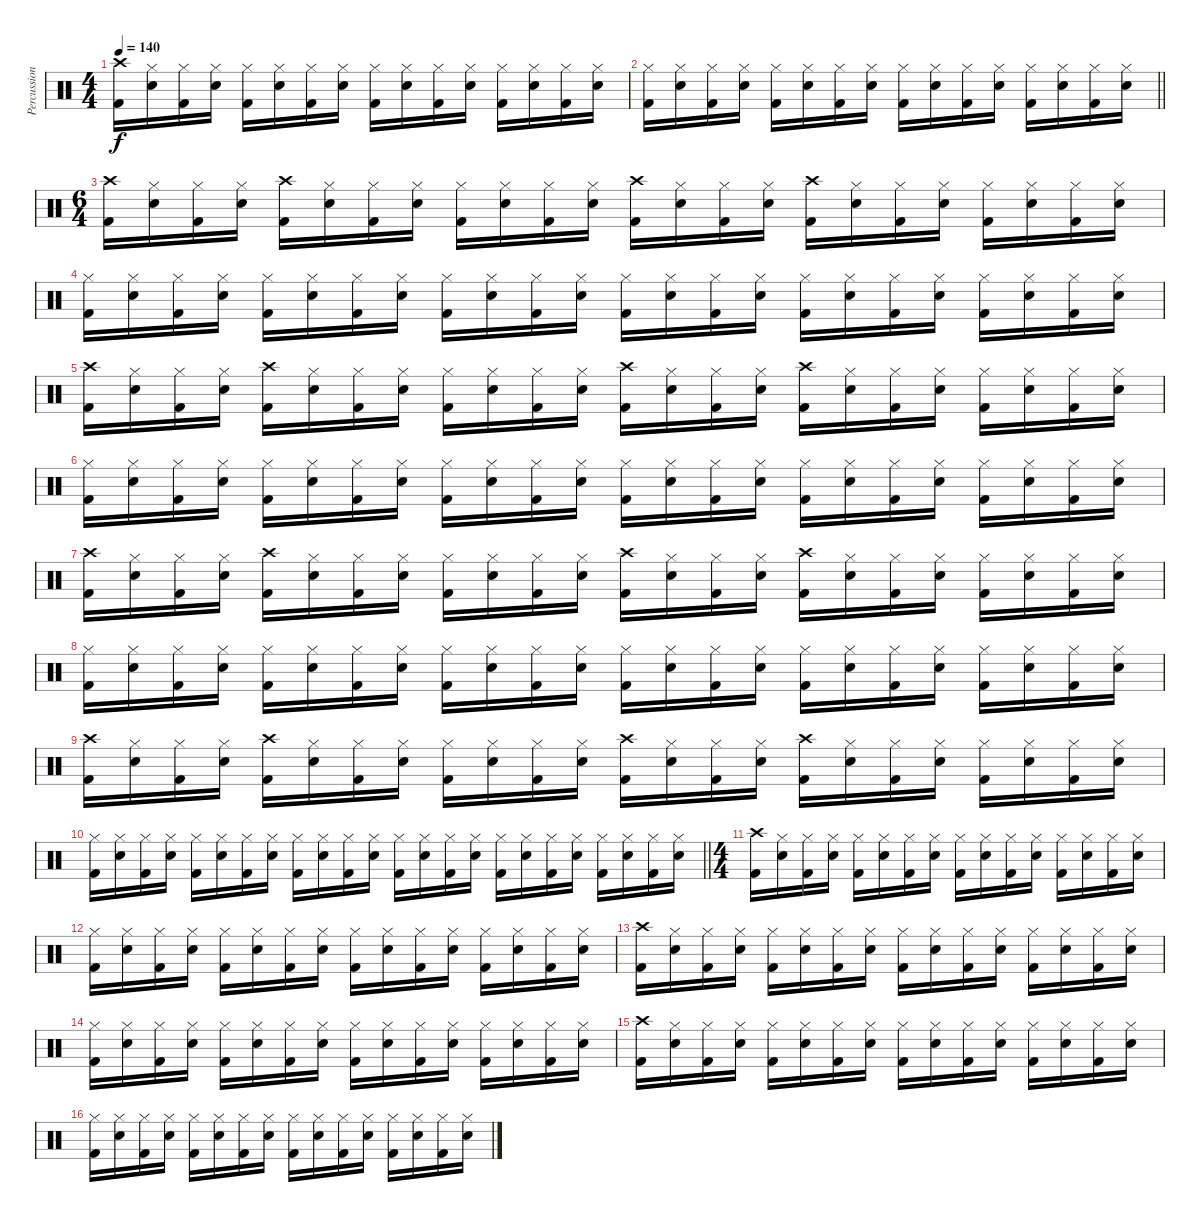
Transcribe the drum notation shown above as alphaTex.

\track ("Percussions" "Percussion") {instrument percussion}
\staff {score}
\articulation defaults
\ts (4 4)
\tempo 140
\clef neutral
\ks c
("Crash high (hit)" "Kick (hit) 2").16{dy f} ("Hi-Hat (closed)" "Electric Snare (hit)").16 ("Hi-Hat (closed)" "Kick (hit) 2").16 ("Hi-Hat (closed)" "Electric Snare (hit)").16 ("Hi-Hat (closed)" "Kick (hit) 2").16 ("Hi-Hat (closed)" "Electric Snare (hit)").16 ("Hi-Hat (closed)" "Kick (hit) 2").16 ("Hi-Hat (closed)" "Electric Snare (hit)").16 ("Hi-Hat (closed)" "Kick (hit) 2").16 ("Hi-Hat (closed)" "Electric Snare (hit)").16 ("Hi-Hat (closed)" "Kick (hit) 2").16 ("Hi-Hat (closed)" "Electric Snare (hit)").16 ("Hi-Hat (closed)" "Kick (hit) 2").16 ("Hi-Hat (closed)" "Electric Snare (hit)").16 ("Hi-Hat (closed)" "Kick (hit) 2").16 ("Hi-Hat (closed)" "Electric Snare (hit)").16 |
\barLineRight lightlight
("Hi-Hat (closed)" "Kick (hit) 2").16 ("Hi-Hat (closed)" "Electric Snare (hit)").16 ("Hi-Hat (closed)" "Kick (hit) 2").16 ("Hi-Hat (closed)" "Electric Snare (hit)").16 ("Hi-Hat (closed)" "Kick (hit) 2").16 ("Hi-Hat (closed)" "Electric Snare (hit)").16 ("Hi-Hat (closed)" "Kick (hit) 2").16 ("Hi-Hat (closed)" "Electric Snare (hit)").16 ("Hi-Hat (closed)" "Kick (hit) 2").16 ("Hi-Hat (closed)" "Electric Snare (hit)").16 ("Hi-Hat (closed)" "Kick (hit) 2").16 ("Hi-Hat (closed)" "Electric Snare (hit)").16 ("Hi-Hat (closed)" "Kick (hit) 2").16 ("Hi-Hat (closed)" "Electric Snare (hit)").16 ("Hi-Hat (closed)" "Kick (hit) 2").16 ("Hi-Hat (closed)" "Electric Snare (hit)").16 |
\ts (6 4)
("Crash high (hit)" "Kick (hit) 2").16 ("Hi-Hat (closed)" "Electric Snare (hit)").16 ("Hi-Hat (closed)" "Kick (hit) 2").16 ("Hi-Hat (closed)" "Electric Snare (hit)").16 ("Crash high (hit)" "Kick (hit) 2").16 ("Hi-Hat (closed)" "Electric Snare (hit)").16 ("Hi-Hat (closed)" "Kick (hit) 2").16 ("Hi-Hat (closed)" "Electric Snare (hit)").16 ("Hi-Hat (closed)" "Kick (hit) 2").16 ("Hi-Hat (closed)" "Electric Snare (hit)").16 ("Hi-Hat (closed)" "Kick (hit) 2").16 ("Hi-Hat (closed)" "Electric Snare (hit)").16 ("Crash high (hit)" "Kick (hit) 2").16 ("Hi-Hat (closed)" "Electric Snare (hit)").16 ("Hi-Hat (closed)" "Kick (hit) 2").16 ("Hi-Hat (closed)" "Electric Snare (hit)").16 ("Crash high (hit)" "Kick (hit) 2").16 ("Hi-Hat (closed)" "Electric Snare (hit)").16 ("Hi-Hat (closed)" "Kick (hit) 2").16 ("Hi-Hat (closed)" "Electric Snare (hit)").16 ("Hi-Hat (closed)" "Kick (hit) 2").16 ("Hi-Hat (closed)" "Electric Snare (hit)").16 ("Hi-Hat (closed)" "Kick (hit) 2").16 ("Hi-Hat (closed)" "Electric Snare (hit)").16 |
("Hi-Hat (closed)" "Kick (hit) 2").16 ("Hi-Hat (closed)" "Electric Snare (hit)").16 ("Hi-Hat (closed)" "Kick (hit) 2").16 ("Hi-Hat (closed)" "Electric Snare (hit)").16 ("Hi-Hat (closed)" "Kick (hit) 2").16 ("Hi-Hat (closed)" "Electric Snare (hit)").16 ("Hi-Hat (closed)" "Kick (hit) 2").16 ("Hi-Hat (closed)" "Electric Snare (hit)").16 ("Hi-Hat (closed)" "Kick (hit) 2").16 ("Hi-Hat (closed)" "Electric Snare (hit)").16 ("Hi-Hat (closed)" "Kick (hit) 2").16 ("Hi-Hat (closed)" "Electric Snare (hit)").16 ("Hi-Hat (closed)" "Kick (hit) 2").16 ("Hi-Hat (closed)" "Electric Snare (hit)").16 ("Hi-Hat (closed)" "Kick (hit) 2").16 ("Hi-Hat (closed)" "Electric Snare (hit)").16 ("Hi-Hat (closed)" "Kick (hit) 2").16 ("Hi-Hat (closed)" "Electric Snare (hit)").16 ("Hi-Hat (closed)" "Kick (hit) 2").16 ("Hi-Hat (closed)" "Electric Snare (hit)").16 ("Hi-Hat (closed)" "Kick (hit) 2").16 ("Hi-Hat (closed)" "Electric Snare (hit)").16 ("Hi-Hat (closed)" "Kick (hit) 2").16 ("Hi-Hat (closed)" "Electric Snare (hit)").16 |
("Crash high (hit)" "Kick (hit) 2").16 ("Hi-Hat (closed)" "Electric Snare (hit)").16 ("Hi-Hat (closed)" "Kick (hit) 2").16 ("Hi-Hat (closed)" "Electric Snare (hit)").16 ("Crash high (hit)" "Kick (hit) 2").16 ("Hi-Hat (closed)" "Electric Snare (hit)").16 ("Hi-Hat (closed)" "Kick (hit) 2").16 ("Hi-Hat (closed)" "Electric Snare (hit)").16 ("Hi-Hat (closed)" "Kick (hit) 2").16 ("Hi-Hat (closed)" "Electric Snare (hit)").16 ("Hi-Hat (closed)" "Kick (hit) 2").16 ("Hi-Hat (closed)" "Electric Snare (hit)").16 ("Crash high (hit)" "Kick (hit) 2").16 ("Hi-Hat (closed)" "Electric Snare (hit)").16 ("Hi-Hat (closed)" "Kick (hit) 2").16 ("Hi-Hat (closed)" "Electric Snare (hit)").16 ("Crash high (hit)" "Kick (hit) 2").16 ("Hi-Hat (closed)" "Electric Snare (hit)").16 ("Hi-Hat (closed)" "Kick (hit) 2").16 ("Hi-Hat (closed)" "Electric Snare (hit)").16 ("Hi-Hat (closed)" "Kick (hit) 2").16 ("Hi-Hat (closed)" "Electric Snare (hit)").16 ("Hi-Hat (closed)" "Kick (hit) 2").16 ("Hi-Hat (closed)" "Electric Snare (hit)").16 |
("Hi-Hat (closed)" "Kick (hit) 2").16 ("Hi-Hat (closed)" "Electric Snare (hit)").16 ("Hi-Hat (closed)" "Kick (hit) 2").16 ("Hi-Hat (closed)" "Electric Snare (hit)").16 ("Hi-Hat (closed)" "Kick (hit) 2").16 ("Hi-Hat (closed)" "Electric Snare (hit)").16 ("Hi-Hat (closed)" "Kick (hit) 2").16 ("Hi-Hat (closed)" "Electric Snare (hit)").16 ("Hi-Hat (closed)" "Kick (hit) 2").16 ("Hi-Hat (closed)" "Electric Snare (hit)").16 ("Hi-Hat (closed)" "Kick (hit) 2").16 ("Hi-Hat (closed)" "Electric Snare (hit)").16 ("Hi-Hat (closed)" "Kick (hit) 2").16 ("Hi-Hat (closed)" "Electric Snare (hit)").16 ("Hi-Hat (closed)" "Kick (hit) 2").16 ("Hi-Hat (closed)" "Electric Snare (hit)").16 ("Hi-Hat (closed)" "Kick (hit) 2").16 ("Hi-Hat (closed)" "Electric Snare (hit)").16 ("Hi-Hat (closed)" "Kick (hit) 2").16 ("Hi-Hat (closed)" "Electric Snare (hit)").16 ("Hi-Hat (closed)" "Kick (hit) 2").16 ("Hi-Hat (closed)" "Electric Snare (hit)").16 ("Hi-Hat (closed)" "Kick (hit) 2").16 ("Hi-Hat (closed)" "Electric Snare (hit)").16 |
("Crash high (hit)" "Kick (hit) 2").16 ("Hi-Hat (closed)" "Electric Snare (hit)").16 ("Hi-Hat (closed)" "Kick (hit) 2").16 ("Hi-Hat (closed)" "Electric Snare (hit)").16 ("Crash high (hit)" "Kick (hit) 2").16 ("Hi-Hat (closed)" "Electric Snare (hit)").16 ("Hi-Hat (closed)" "Kick (hit) 2").16 ("Hi-Hat (closed)" "Electric Snare (hit)").16 ("Hi-Hat (closed)" "Kick (hit) 2").16 ("Hi-Hat (closed)" "Electric Snare (hit)").16 ("Hi-Hat (closed)" "Kick (hit) 2").16 ("Hi-Hat (closed)" "Electric Snare (hit)").16 ("Crash high (hit)" "Kick (hit) 2").16 ("Hi-Hat (closed)" "Electric Snare (hit)").16 ("Hi-Hat (closed)" "Kick (hit) 2").16 ("Hi-Hat (closed)" "Electric Snare (hit)").16 ("Crash high (hit)" "Kick (hit) 2").16 ("Hi-Hat (closed)" "Electric Snare (hit)").16 ("Hi-Hat (closed)" "Kick (hit) 2").16 ("Hi-Hat (closed)" "Electric Snare (hit)").16 ("Hi-Hat (closed)" "Kick (hit) 2").16 ("Hi-Hat (closed)" "Electric Snare (hit)").16 ("Hi-Hat (closed)" "Kick (hit) 2").16 ("Hi-Hat (closed)" "Electric Snare (hit)").16 |
("Hi-Hat (closed)" "Kick (hit) 2").16 ("Hi-Hat (closed)" "Electric Snare (hit)").16 ("Hi-Hat (closed)" "Kick (hit) 2").16 ("Hi-Hat (closed)" "Electric Snare (hit)").16 ("Hi-Hat (closed)" "Kick (hit) 2").16 ("Hi-Hat (closed)" "Electric Snare (hit)").16 ("Hi-Hat (closed)" "Kick (hit) 2").16 ("Hi-Hat (closed)" "Electric Snare (hit)").16 ("Hi-Hat (closed)" "Kick (hit) 2").16 ("Hi-Hat (closed)" "Electric Snare (hit)").16 ("Hi-Hat (closed)" "Kick (hit) 2").16 ("Hi-Hat (closed)" "Electric Snare (hit)").16 ("Hi-Hat (closed)" "Kick (hit) 2").16 ("Hi-Hat (closed)" "Electric Snare (hit)").16 ("Hi-Hat (closed)" "Kick (hit) 2").16 ("Hi-Hat (closed)" "Electric Snare (hit)").16 ("Hi-Hat (closed)" "Kick (hit) 2").16 ("Hi-Hat (closed)" "Electric Snare (hit)").16 ("Hi-Hat (closed)" "Kick (hit) 2").16 ("Hi-Hat (closed)" "Electric Snare (hit)").16 ("Hi-Hat (closed)" "Kick (hit) 2").16 ("Hi-Hat (closed)" "Electric Snare (hit)").16 ("Hi-Hat (closed)" "Kick (hit) 2").16 ("Hi-Hat (closed)" "Electric Snare (hit)").16 |
("Crash high (hit)" "Kick (hit) 2").16 ("Hi-Hat (closed)" "Electric Snare (hit)").16 ("Hi-Hat (closed)" "Kick (hit) 2").16 ("Hi-Hat (closed)" "Electric Snare (hit)").16 ("Crash high (hit)" "Kick (hit) 2").16 ("Hi-Hat (closed)" "Electric Snare (hit)").16 ("Hi-Hat (closed)" "Kick (hit) 2").16 ("Hi-Hat (closed)" "Electric Snare (hit)").16 ("Hi-Hat (closed)" "Kick (hit) 2").16 ("Hi-Hat (closed)" "Electric Snare (hit)").16 ("Hi-Hat (closed)" "Kick (hit) 2").16 ("Hi-Hat (closed)" "Electric Snare (hit)").16 ("Crash high (hit)" "Kick (hit) 2").16 ("Hi-Hat (closed)" "Electric Snare (hit)").16 ("Hi-Hat (closed)" "Kick (hit) 2").16 ("Hi-Hat (closed)" "Electric Snare (hit)").16 ("Crash high (hit)" "Kick (hit) 2").16 ("Hi-Hat (closed)" "Electric Snare (hit)").16 ("Hi-Hat (closed)" "Kick (hit) 2").16 ("Hi-Hat (closed)" "Electric Snare (hit)").16 ("Hi-Hat (closed)" "Kick (hit) 2").16 ("Hi-Hat (closed)" "Electric Snare (hit)").16 ("Hi-Hat (closed)" "Kick (hit) 2").16 ("Hi-Hat (closed)" "Electric Snare (hit)").16 |
\barLineRight lightlight
("Hi-Hat (closed)" "Kick (hit) 2").16 ("Hi-Hat (closed)" "Electric Snare (hit)").16 ("Hi-Hat (closed)" "Kick (hit) 2").16 ("Hi-Hat (closed)" "Electric Snare (hit)").16 ("Hi-Hat (closed)" "Kick (hit) 2").16 ("Hi-Hat (closed)" "Electric Snare (hit)").16 ("Hi-Hat (closed)" "Kick (hit) 2").16 ("Hi-Hat (closed)" "Electric Snare (hit)").16 ("Hi-Hat (closed)" "Kick (hit) 2").16 ("Hi-Hat (closed)" "Electric Snare (hit)").16 ("Hi-Hat (closed)" "Kick (hit) 2").16 ("Hi-Hat (closed)" "Electric Snare (hit)").16 ("Hi-Hat (closed)" "Kick (hit) 2").16 ("Hi-Hat (closed)" "Electric Snare (hit)").16 ("Hi-Hat (closed)" "Kick (hit) 2").16 ("Hi-Hat (closed)" "Electric Snare (hit)").16 ("Hi-Hat (closed)" "Kick (hit) 2").16 ("Hi-Hat (closed)" "Electric Snare (hit)").16 ("Hi-Hat (closed)" "Kick (hit) 2").16 ("Hi-Hat (closed)" "Electric Snare (hit)").16 ("Hi-Hat (closed)" "Kick (hit) 2").16 ("Hi-Hat (closed)" "Electric Snare (hit)").16 ("Hi-Hat (closed)" "Kick (hit) 2").16 ("Hi-Hat (closed)" "Electric Snare (hit)").16 |
\ts (4 4)
("Crash high (hit)" "Kick (hit) 2").16 ("Hi-Hat (closed)" "Electric Snare (hit)").16 ("Hi-Hat (closed)" "Kick (hit) 2").16 ("Hi-Hat (closed)" "Electric Snare (hit)").16 ("Hi-Hat (closed)" "Kick (hit) 2").16 ("Hi-Hat (closed)" "Electric Snare (hit)").16 ("Hi-Hat (closed)" "Kick (hit) 2").16 ("Hi-Hat (closed)" "Electric Snare (hit)").16 ("Hi-Hat (closed)" "Kick (hit) 2").16 ("Hi-Hat (closed)" "Electric Snare (hit)").16 ("Hi-Hat (closed)" "Kick (hit) 2").16 ("Hi-Hat (closed)" "Electric Snare (hit)").16 ("Hi-Hat (closed)" "Kick (hit) 2").16 ("Hi-Hat (closed)" "Electric Snare (hit)").16 ("Hi-Hat (closed)" "Kick (hit) 2").16 ("Hi-Hat (closed)" "Electric Snare (hit)").16 |
("Hi-Hat (closed)" "Kick (hit) 2").16 ("Hi-Hat (closed)" "Electric Snare (hit)").16 ("Hi-Hat (closed)" "Kick (hit) 2").16 ("Hi-Hat (closed)" "Electric Snare (hit)").16 ("Hi-Hat (closed)" "Kick (hit) 2").16 ("Hi-Hat (closed)" "Electric Snare (hit)").16 ("Hi-Hat (closed)" "Kick (hit) 2").16 ("Hi-Hat (closed)" "Electric Snare (hit)").16 ("Hi-Hat (closed)" "Kick (hit) 2").16 ("Hi-Hat (closed)" "Electric Snare (hit)").16 ("Hi-Hat (closed)" "Kick (hit) 2").16 ("Hi-Hat (closed)" "Electric Snare (hit)").16 ("Hi-Hat (closed)" "Kick (hit) 2").16 ("Hi-Hat (closed)" "Electric Snare (hit)").16 ("Hi-Hat (closed)" "Kick (hit) 2").16 ("Hi-Hat (closed)" "Electric Snare (hit)").16 |
("Crash high (hit)" "Kick (hit) 2").16 ("Hi-Hat (closed)" "Electric Snare (hit)").16 ("Hi-Hat (closed)" "Kick (hit) 2").16 ("Hi-Hat (closed)" "Electric Snare (hit)").16 ("Hi-Hat (closed)" "Kick (hit) 2").16 ("Hi-Hat (closed)" "Electric Snare (hit)").16 ("Hi-Hat (closed)" "Kick (hit) 2").16 ("Hi-Hat (closed)" "Electric Snare (hit)").16 ("Hi-Hat (closed)" "Kick (hit) 2").16 ("Hi-Hat (closed)" "Electric Snare (hit)").16 ("Hi-Hat (closed)" "Kick (hit) 2").16 ("Hi-Hat (closed)" "Electric Snare (hit)").16 ("Hi-Hat (closed)" "Kick (hit) 2").16 ("Hi-Hat (closed)" "Electric Snare (hit)").16 ("Hi-Hat (closed)" "Kick (hit) 2").16 ("Hi-Hat (closed)" "Electric Snare (hit)").16 |
("Hi-Hat (closed)" "Kick (hit) 2").16 ("Hi-Hat (closed)" "Electric Snare (hit)").16 ("Hi-Hat (closed)" "Kick (hit) 2").16 ("Hi-Hat (closed)" "Electric Snare (hit)").16 ("Hi-Hat (closed)" "Kick (hit) 2").16 ("Hi-Hat (closed)" "Electric Snare (hit)").16 ("Hi-Hat (closed)" "Kick (hit) 2").16 ("Hi-Hat (closed)" "Electric Snare (hit)").16 ("Hi-Hat (closed)" "Kick (hit) 2").16 ("Hi-Hat (closed)" "Electric Snare (hit)").16 ("Hi-Hat (closed)" "Kick (hit) 2").16 ("Hi-Hat (closed)" "Electric Snare (hit)").16 ("Hi-Hat (closed)" "Kick (hit) 2").16 ("Hi-Hat (closed)" "Electric Snare (hit)").16 ("Hi-Hat (closed)" "Kick (hit) 2").16 ("Hi-Hat (closed)" "Electric Snare (hit)").16 |
("Crash high (hit)" "Kick (hit) 2").16 ("Hi-Hat (closed)" "Electric Snare (hit)").16 ("Hi-Hat (closed)" "Kick (hit) 2").16 ("Hi-Hat (closed)" "Electric Snare (hit)").16 ("Hi-Hat (closed)" "Kick (hit) 2").16 ("Hi-Hat (closed)" "Electric Snare (hit)").16 ("Hi-Hat (closed)" "Kick (hit) 2").16 ("Hi-Hat (closed)" "Electric Snare (hit)").16 ("Hi-Hat (closed)" "Kick (hit) 2").16 ("Hi-Hat (closed)" "Electric Snare (hit)").16 ("Hi-Hat (closed)" "Kick (hit) 2").16 ("Hi-Hat (closed)" "Electric Snare (hit)").16 ("Hi-Hat (closed)" "Kick (hit) 2").16 ("Hi-Hat (closed)" "Electric Snare (hit)").16 ("Hi-Hat (closed)" "Kick (hit) 2").16 ("Hi-Hat (closed)" "Electric Snare (hit)").16 |
("Hi-Hat (closed)" "Kick (hit) 2").16 ("Hi-Hat (closed)" "Electric Snare (hit)").16 ("Hi-Hat (closed)" "Kick (hit) 2").16 ("Hi-Hat (closed)" "Electric Snare (hit)").16 ("Hi-Hat (closed)" "Kick (hit) 2").16 ("Hi-Hat (closed)" "Electric Snare (hit)").16 ("Hi-Hat (closed)" "Kick (hit) 2").16 ("Hi-Hat (closed)" "Electric Snare (hit)").16 ("Hi-Hat (closed)" "Kick (hit) 2").16 ("Hi-Hat (closed)" "Electric Snare (hit)").16 ("Hi-Hat (closed)" "Kick (hit) 2").16 ("Hi-Hat (closed)" "Electric Snare (hit)").16 ("Hi-Hat (closed)" "Kick (hit) 2").16 ("Hi-Hat (closed)" "Electric Snare (hit)").16 ("Hi-Hat (closed)" "Kick (hit) 2").16 ("Hi-Hat (closed)" "Electric Snare (hit)").16
